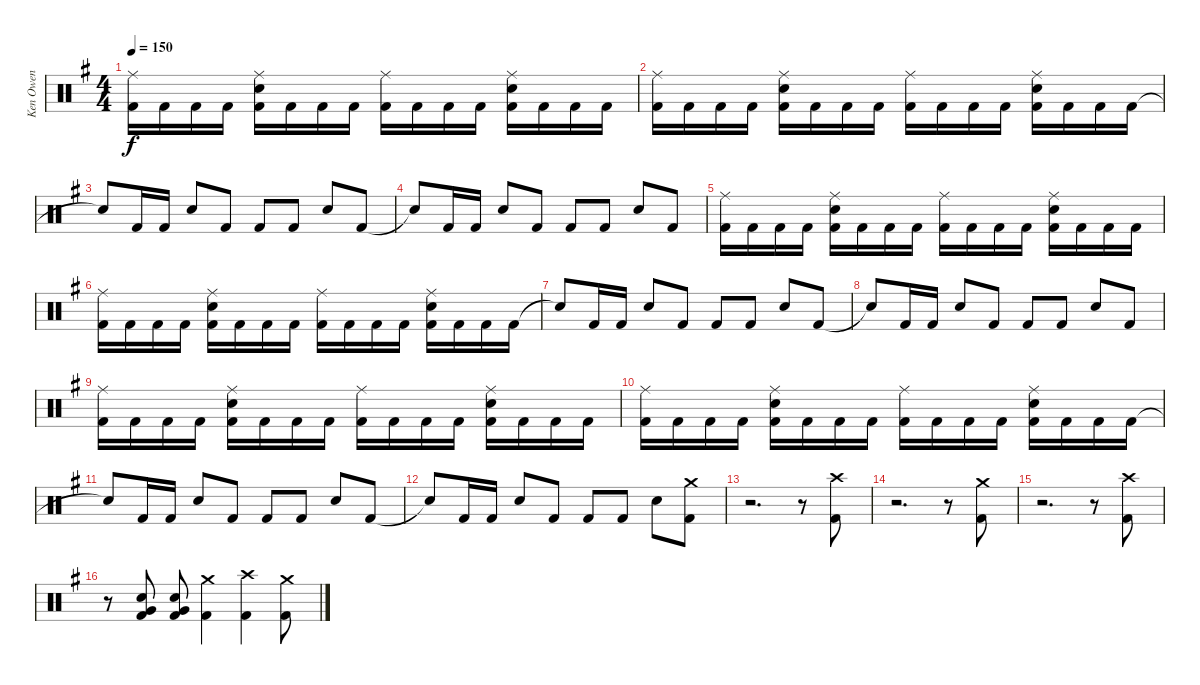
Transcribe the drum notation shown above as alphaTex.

\track ("Ken Owen" "Ken Owen") {instrument percussion}
\staff {score}
\articulation defaults
\ts (4 4)
\tempo 150
\clef neutral
\ks g
("Ride (middle)" "Kick (hit) 2").16{dy f} "Kick (hit) 2".16 "Kick (hit) 2".16 "Kick (hit) 2".16 ("Ride (middle)" "Snare (hit) 2" "Kick (hit) 2").16 "Kick (hit) 2".16 "Kick (hit) 2".16 "Kick (hit) 2".16 ("Ride (middle)" "Kick (hit) 2").16 "Kick (hit) 2".16 "Kick (hit) 2".16 "Kick (hit) 2".16 ("Ride (middle)" "Snare (hit) 2" "Kick (hit) 2").16 "Kick (hit) 2".16 "Kick (hit) 2".16 "Kick (hit) 2".16 |
("Ride (middle)" "Kick (hit) 2").16 "Kick (hit) 2".16 "Kick (hit) 2".16 "Kick (hit) 2".16 ("Ride (middle)" "Snare (hit) 2" "Kick (hit) 2").16 "Kick (hit) 2".16 "Kick (hit) 2".16 "Kick (hit) 2".16 ("Ride (middle)" "Kick (hit) 2").16 "Kick (hit) 2".16 "Kick (hit) 2".16 "Kick (hit) 2".16 ("Ride (middle)" "Snare (hit) 2" "Kick (hit) 2").16 "Kick (hit) 2".16 "Kick (hit) 2".16 "Kick (hit) 2".16 |
"Snare (hit)"{t}.8 "Kick (hit) 2".16 "Kick (hit) 2".16 "Snare (hit) 2".8 "Kick (hit) 2".8 "Kick (hit) 2".8 "Kick (hit) 2".8 "Snare (hit) 2".8 "Kick (hit) 2".8 |
"Snare (hit)"{t}.8 "Kick (hit) 2".16 "Kick (hit) 2".16 "Snare (hit) 2".8 "Kick (hit) 2".8 "Kick (hit) 2".8 "Kick (hit) 2".8 "Snare (hit) 2".8 "Kick (hit) 2".8 |
("Ride (middle)" "Kick (hit) 2").16 "Kick (hit) 2".16 "Kick (hit) 2".16 "Kick (hit) 2".16 ("Ride (middle)" "Snare (hit) 2" "Kick (hit) 2").16 "Kick (hit) 2".16 "Kick (hit) 2".16 "Kick (hit) 2".16 ("Ride (middle)" "Kick (hit) 2").16 "Kick (hit) 2".16 "Kick (hit) 2".16 "Kick (hit) 2".16 ("Ride (middle)" "Snare (hit) 2" "Kick (hit) 2").16 "Kick (hit) 2".16 "Kick (hit) 2".16 "Kick (hit) 2".16 |
("Ride (middle)" "Kick (hit) 2").16 "Kick (hit) 2".16 "Kick (hit) 2".16 "Kick (hit) 2".16 ("Ride (middle)" "Snare (hit) 2" "Kick (hit) 2").16 "Kick (hit) 2".16 "Kick (hit) 2".16 "Kick (hit) 2".16 ("Ride (middle)" "Kick (hit) 2").16 "Kick (hit) 2".16 "Kick (hit) 2".16 "Kick (hit) 2".16 ("Ride (middle)" "Snare (hit) 2" "Kick (hit) 2").16 "Kick (hit) 2".16 "Kick (hit) 2".16 "Kick (hit) 2".16 |
"Snare (hit)"{t}.8 "Kick (hit) 2".16 "Kick (hit) 2".16 "Snare (hit) 2".8 "Kick (hit) 2".8 "Kick (hit) 2".8 "Kick (hit) 2".8 "Snare (hit) 2".8 "Kick (hit) 2".8 |
"Snare (hit)"{t}.8 "Kick (hit) 2".16 "Kick (hit) 2".16 "Snare (hit) 2".8 "Kick (hit) 2".8 "Kick (hit) 2".8 "Kick (hit) 2".8 "Snare (hit) 2".8 "Kick (hit) 2".8 |
("Ride (middle)" "Kick (hit) 2").16 "Kick (hit) 2".16 "Kick (hit) 2".16 "Kick (hit) 2".16 ("Ride (middle)" "Snare (hit) 2" "Kick (hit) 2").16 "Kick (hit) 2".16 "Kick (hit) 2".16 "Kick (hit) 2".16 ("Ride (middle)" "Kick (hit) 2").16 "Kick (hit) 2".16 "Kick (hit) 2".16 "Kick (hit) 2".16 ("Ride (middle)" "Snare (hit) 2" "Kick (hit) 2").16 "Kick (hit) 2".16 "Kick (hit) 2".16 "Kick (hit) 2".16 |
("Ride (middle)" "Kick (hit) 2").16 "Kick (hit) 2".16 "Kick (hit) 2".16 "Kick (hit) 2".16 ("Ride (middle)" "Snare (hit) 2" "Kick (hit) 2").16 "Kick (hit) 2".16 "Kick (hit) 2".16 "Kick (hit) 2".16 ("Ride (middle)" "Kick (hit) 2").16 "Kick (hit) 2".16 "Kick (hit) 2".16 "Kick (hit) 2".16 ("Ride (middle)" "Snare (hit) 2" "Kick (hit) 2").16 "Kick (hit) 2".16 "Kick (hit) 2".16 "Kick (hit) 2".16 |
"Snare (hit)"{t}.8 "Kick (hit) 2".16 "Kick (hit) 2".16 "Snare (hit) 2".8 "Kick (hit) 2".8 "Kick (hit) 2".8 "Kick (hit) 2".8 "Snare (hit) 2".8 "Kick (hit) 2".8 |
"Snare (hit)"{t}.8 "Kick (hit) 2".16 "Kick (hit) 2".16 "Snare (hit) 2".8 "Kick (hit) 2".8 "Kick (hit) 2".8 "Kick (hit) 2".8 "Snare (hit) 2".8 ("Crash medium (hit)" "Kick (hit) 2").8 |
r.2{d} r.8 ("Crash high (hit)" "Kick (hit) 2").8 |
r.2{d} r.8 ("Crash medium (hit)" "Kick (hit) 2").8 |
r.2{d} r.8 ("Crash high (hit)" "Kick (hit) 2").8 |
r.8 ("Snare (hit) 2" "Very Low Tom (hit)" "Kick (hit) 2").8{bd 60} ("Snare (hit) 2" "Very Low Tom (hit)" "Kick (hit) 2").8{bu 60} ("Crash medium (hit)" "Kick (hit) 2").4 ("Crash high (hit)" "Kick (hit) 2").4 ("Crash medium (hit)" "Kick (hit) 2").8
